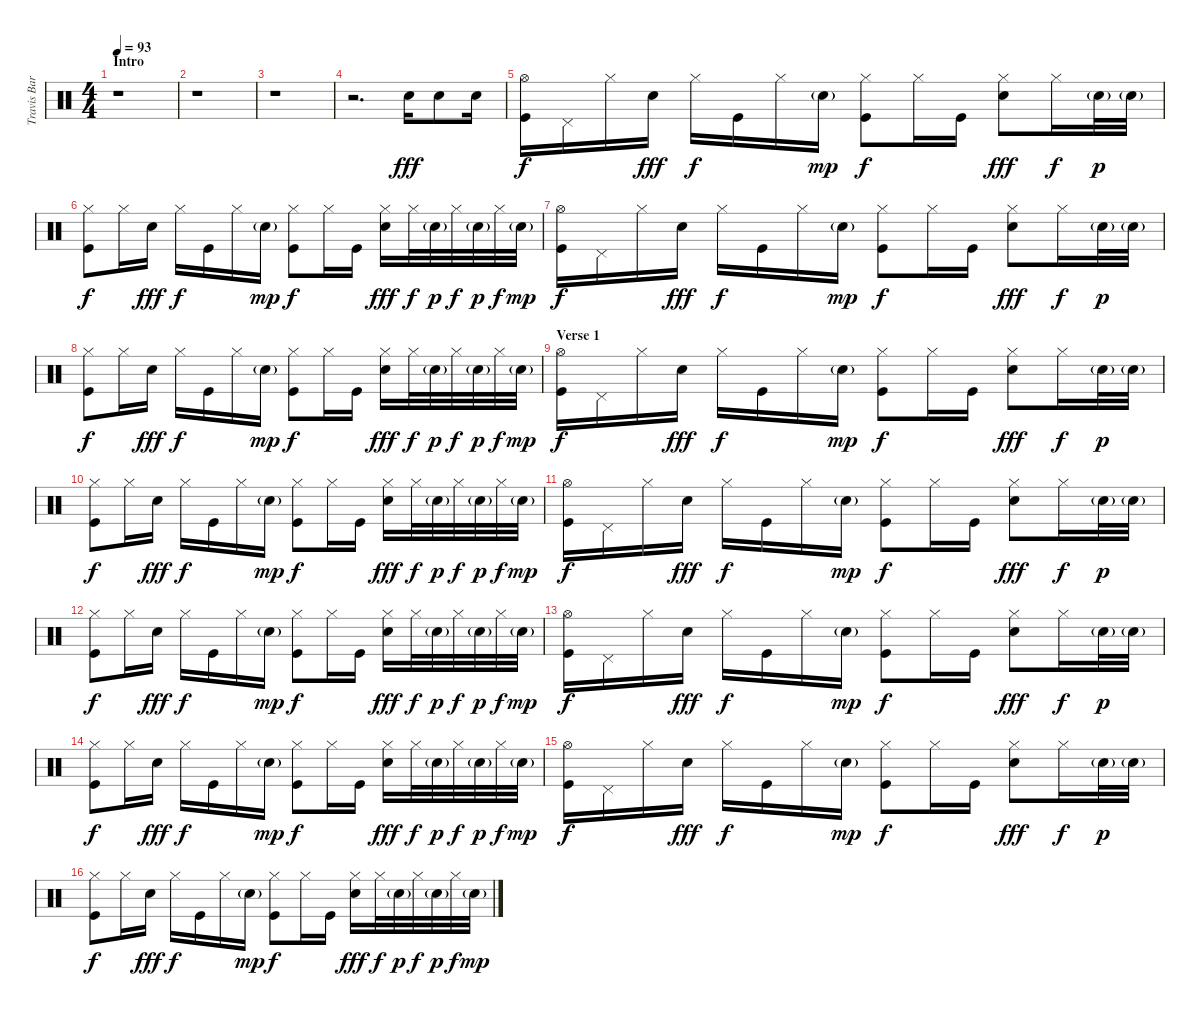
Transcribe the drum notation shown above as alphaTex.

\track ("Travis Barker" "Travis Bar") {instrument percussion}
\staff {score}
\articulation defaults
\ts (4 4)
\section ("" "Intro")
\tempo 93
\clef neutral
\ks c
r.1{dy fff} |
r.1 |
r.1 |
r.2{d} "Electric Snare (hit)".16 "Electric Snare (hit)".8 "Electric Snare (hit)".16 |
("Hi-Hat (open)" "Kick (hit)").16{dy f} "Pedal Hi-Hat (hit)".16 "Hi-Hat (closed)".16 "Electric Snare (hit)".16{dy fff} "Hi-Hat (closed)".16{dy f} "Kick (hit)".16 "Hi-Hat (closed)".16 "Electric Snare (hit)"{g}.16{dy mp} ("Hi-Hat (closed)" "Kick (hit)").8{dy f} "Hi-Hat (closed)".16 "Kick (hit)".16 ("Hi-Hat (closed)" "Electric Snare (hit)").8{dy fff} "Hi-Hat (closed)".16{dy f} "Electric Snare (hit)"{g}.32{dy p} "Electric Snare (hit)"{g}.32 |
("Hi-Hat (closed)" "Kick (hit)").8{dy f} "Hi-Hat (closed)".16 "Electric Snare (hit)".16{dy fff} "Hi-Hat (closed)".16{dy f} "Kick (hit)".16 "Hi-Hat (closed)".16 "Electric Snare (hit)"{g}.16{dy mp} ("Hi-Hat (closed)" "Kick (hit)").8{dy f} "Hi-Hat (closed)".16 "Kick (hit)".16 ("Hi-Hat (closed)" "Electric Snare (hit)").16{dy fff} "Hi-Hat (closed)".32{dy f} "Electric Snare (hit)"{g}.32{dy p} "Hi-Hat (closed)".32{dy f} "Electric Snare (hit)"{g}.32{dy p} "Hi-Hat (closed)".32{dy f} "Electric Snare (hit)"{g}.32{dy mp} |
("Hi-Hat (open)" "Kick (hit)").16{dy f} "Pedal Hi-Hat (hit)".16 "Hi-Hat (closed)".16 "Electric Snare (hit)".16{dy fff} "Hi-Hat (closed)".16{dy f} "Kick (hit)".16 "Hi-Hat (closed)".16 "Electric Snare (hit)"{g}.16{dy mp} ("Hi-Hat (closed)" "Kick (hit)").8{dy f} "Hi-Hat (closed)".16 "Kick (hit)".16 ("Hi-Hat (closed)" "Electric Snare (hit)").8{dy fff} "Hi-Hat (closed)".16{dy f} "Electric Snare (hit)"{g}.32{dy p} "Electric Snare (hit)"{g}.32 |
("Hi-Hat (closed)" "Kick (hit)").8{dy f} "Hi-Hat (closed)".16 "Electric Snare (hit)".16{dy fff} "Hi-Hat (closed)".16{dy f} "Kick (hit)".16 "Hi-Hat (closed)".16 "Electric Snare (hit)"{g}.16{dy mp} ("Hi-Hat (closed)" "Kick (hit)").8{dy f} "Hi-Hat (closed)".16 "Kick (hit)".16 ("Hi-Hat (closed)" "Electric Snare (hit)").16{dy fff} "Hi-Hat (closed)".32{dy f} "Electric Snare (hit)"{g}.32{dy p} "Hi-Hat (closed)".32{dy f} "Electric Snare (hit)"{g}.32{dy p} "Hi-Hat (closed)".32{dy f} "Electric Snare (hit)"{g}.32{dy mp} |
\section ("" "Verse 1")
("Hi-Hat (open)" "Kick (hit)").16{dy f} "Pedal Hi-Hat (hit)".16 "Hi-Hat (closed)".16 "Electric Snare (hit)".16{dy fff} "Hi-Hat (closed)".16{dy f} "Kick (hit)".16 "Hi-Hat (closed)".16 "Electric Snare (hit)"{g}.16{dy mp} ("Hi-Hat (closed)" "Kick (hit)").8{dy f} "Hi-Hat (closed)".16 "Kick (hit)".16 ("Hi-Hat (closed)" "Electric Snare (hit)").8{dy fff} "Hi-Hat (closed)".16{dy f} "Electric Snare (hit)"{g}.32{dy p} "Electric Snare (hit)"{g}.32 |
("Hi-Hat (closed)" "Kick (hit)").8{dy f} "Hi-Hat (closed)".16 "Electric Snare (hit)".16{dy fff} "Hi-Hat (closed)".16{dy f} "Kick (hit)".16 "Hi-Hat (closed)".16 "Electric Snare (hit)"{g}.16{dy mp} ("Hi-Hat (closed)" "Kick (hit)").8{dy f} "Hi-Hat (closed)".16 "Kick (hit)".16 ("Hi-Hat (closed)" "Electric Snare (hit)").16{dy fff} "Hi-Hat (closed)".32{dy f} "Electric Snare (hit)"{g}.32{dy p} "Hi-Hat (closed)".32{dy f} "Electric Snare (hit)"{g}.32{dy p} "Hi-Hat (closed)".32{dy f} "Electric Snare (hit)"{g}.32{dy mp} |
("Hi-Hat (open)" "Kick (hit)").16{dy f} "Pedal Hi-Hat (hit)".16 "Hi-Hat (closed)".16 "Electric Snare (hit)".16{dy fff} "Hi-Hat (closed)".16{dy f} "Kick (hit)".16 "Hi-Hat (closed)".16 "Electric Snare (hit)"{g}.16{dy mp} ("Hi-Hat (closed)" "Kick (hit)").8{dy f} "Hi-Hat (closed)".16 "Kick (hit)".16 ("Hi-Hat (closed)" "Electric Snare (hit)").8{dy fff} "Hi-Hat (closed)".16{dy f} "Electric Snare (hit)"{g}.32{dy p} "Electric Snare (hit)"{g}.32 |
("Hi-Hat (closed)" "Kick (hit)").8{dy f} "Hi-Hat (closed)".16 "Electric Snare (hit)".16{dy fff} "Hi-Hat (closed)".16{dy f} "Kick (hit)".16 "Hi-Hat (closed)".16 "Electric Snare (hit)"{g}.16{dy mp} ("Hi-Hat (closed)" "Kick (hit)").8{dy f} "Hi-Hat (closed)".16 "Kick (hit)".16 ("Hi-Hat (closed)" "Electric Snare (hit)").16{dy fff} "Hi-Hat (closed)".32{dy f} "Electric Snare (hit)"{g}.32{dy p} "Hi-Hat (closed)".32{dy f} "Electric Snare (hit)"{g}.32{dy p} "Hi-Hat (closed)".32{dy f} "Electric Snare (hit)"{g}.32{dy mp} |
("Hi-Hat (open)" "Kick (hit)").16{dy f} "Pedal Hi-Hat (hit)".16 "Hi-Hat (closed)".16 "Electric Snare (hit)".16{dy fff} "Hi-Hat (closed)".16{dy f} "Kick (hit)".16 "Hi-Hat (closed)".16 "Electric Snare (hit)"{g}.16{dy mp} ("Hi-Hat (closed)" "Kick (hit)").8{dy f} "Hi-Hat (closed)".16 "Kick (hit)".16 ("Hi-Hat (closed)" "Electric Snare (hit)").8{dy fff} "Hi-Hat (closed)".16{dy f} "Electric Snare (hit)"{g}.32{dy p} "Electric Snare (hit)"{g}.32 |
("Hi-Hat (closed)" "Kick (hit)").8{dy f} "Hi-Hat (closed)".16 "Electric Snare (hit)".16{dy fff} "Hi-Hat (closed)".16{dy f} "Kick (hit)".16 "Hi-Hat (closed)".16 "Electric Snare (hit)"{g}.16{dy mp} ("Hi-Hat (closed)" "Kick (hit)").8{dy f} "Hi-Hat (closed)".16 "Kick (hit)".16 ("Hi-Hat (closed)" "Electric Snare (hit)").16{dy fff} "Hi-Hat (closed)".32{dy f} "Electric Snare (hit)"{g}.32{dy p} "Hi-Hat (closed)".32{dy f} "Electric Snare (hit)"{g}.32{dy p} "Hi-Hat (closed)".32{dy f} "Electric Snare (hit)"{g}.32{dy mp} |
("Hi-Hat (open)" "Kick (hit)").16{dy f} "Pedal Hi-Hat (hit)".16 "Hi-Hat (closed)".16 "Electric Snare (hit)".16{dy fff} "Hi-Hat (closed)".16{dy f} "Kick (hit)".16 "Hi-Hat (closed)".16 "Electric Snare (hit)"{g}.16{dy mp} ("Hi-Hat (closed)" "Kick (hit)").8{dy f} "Hi-Hat (closed)".16 "Kick (hit)".16 ("Hi-Hat (closed)" "Electric Snare (hit)").8{dy fff} "Hi-Hat (closed)".16{dy f} "Electric Snare (hit)"{g}.32{dy p} "Electric Snare (hit)"{g}.32 |
("Hi-Hat (closed)" "Kick (hit)").8{dy f} "Hi-Hat (closed)".16 "Electric Snare (hit)".16{dy fff} "Hi-Hat (closed)".16{dy f} "Kick (hit)".16 "Hi-Hat (closed)".16 "Electric Snare (hit)"{g}.16{dy mp} ("Hi-Hat (closed)" "Kick (hit)").8{dy f} "Hi-Hat (closed)".16 "Kick (hit)".16 ("Hi-Hat (closed)" "Electric Snare (hit)").16{dy fff} "Hi-Hat (closed)".32{dy f} "Electric Snare (hit)"{g}.32{dy p} "Hi-Hat (closed)".32{dy f} "Electric Snare (hit)"{g}.32{dy p} "Hi-Hat (closed)".32{dy f} "Electric Snare (hit)"{g}.32{dy mp}
